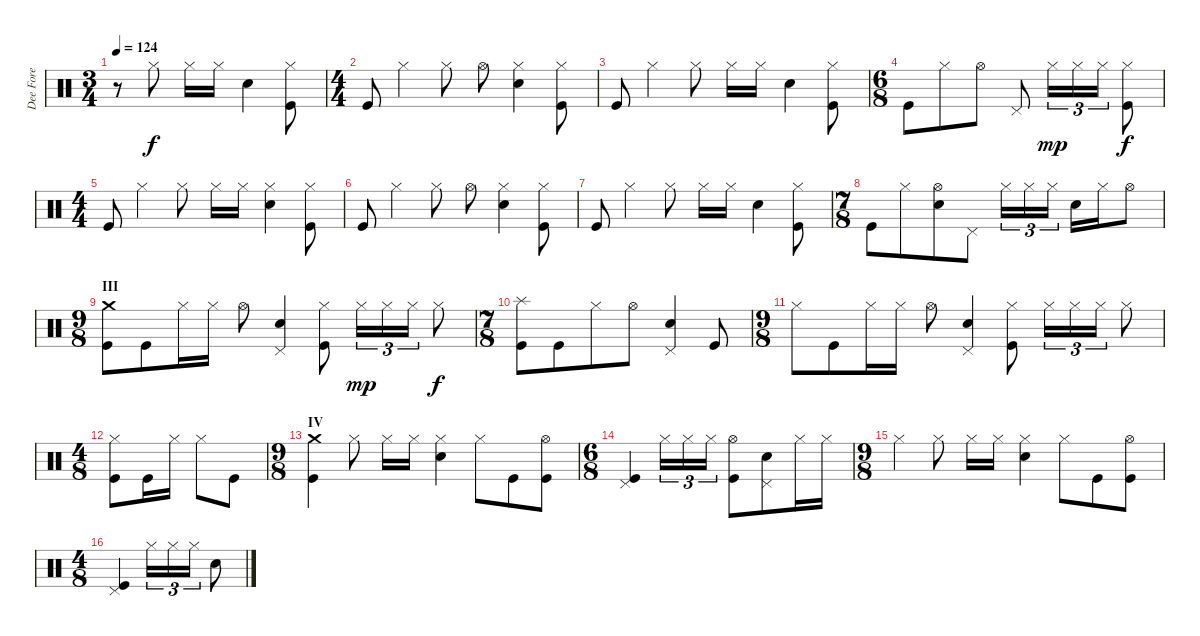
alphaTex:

\track ("Dee Fore" "Dee Fore") {instrument percussion}
\staff {score}
\articulation defaults
\ts (3 4)
\tempo 124
\clef neutral
\ks c
r.8{dy f} "Hi-Hat (closed)".8 "Hi-Hat (closed)".16 "Hi-Hat (closed)".16 "Electric Snare (hit)".4 ("Hi-Hat (closed)" "Kick (hit)").8 |
\ts (4 4)
"Kick (hit)".8 "Hi-Hat (closed)".4 "Hi-Hat (closed)".8 "Hi-Hat (open)".8 ("Hi-Hat (closed)" "Electric Snare (hit)").4 ("Hi-Hat (closed)" "Kick (hit)").8 |
"Kick (hit)".8 "Hi-Hat (closed)".4 "Hi-Hat (closed)".8 "Hi-Hat (closed)".16 "Hi-Hat (closed)".16 "Electric Snare (hit)".4 ("Hi-Hat (closed)" "Kick (hit)").8 |
\ts (6 8)
"Kick (hit)".8 "Hi-Hat (closed)".8 "Hi-Hat (open)".8 "Pedal Hi-Hat (hit)".8 "Hi-Hat (closed)".16{tu (3 2) dy mp} "Hi-Hat (closed)".16{tu (3 2)} "Hi-Hat (closed)".16{tu (3 2)} ("Hi-Hat (closed)" "Kick (hit)").8{dy f} |
\ts (4 4)
"Kick (hit)".8 "Hi-Hat (closed)".4 "Hi-Hat (closed)".8 "Hi-Hat (closed)".16 "Hi-Hat (closed)".16 ("Hi-Hat (closed)" "Electric Snare (hit)").4 ("Hi-Hat (closed)" "Kick (hit)").8 |
"Kick (hit)".8 "Hi-Hat (closed)".4 "Hi-Hat (closed)".8 "Hi-Hat (open)".8 ("Hi-Hat (closed)" "Electric Snare (hit)").4 ("Hi-Hat (closed)" "Kick (hit)").8 |
"Kick (hit)".8 "Hi-Hat (closed)".4 "Hi-Hat (closed)".8 "Hi-Hat (closed)".16 "Hi-Hat (closed)".16 "Electric Snare (hit)".4 ("Hi-Hat (closed)" "Kick (hit)").8 |
\ts (7 8)
"Kick (hit)".8 "Hi-Hat (closed)".8 ("Hi-Hat (open)" "Electric Snare (hit)").8 "Pedal Hi-Hat (hit)".8 "Hi-Hat (closed)".16{tu (3 2)} "Hi-Hat (closed)".16{tu (3 2)} "Hi-Hat (closed)".16{tu (3 2)} "Electric Snare (hit)".16 "Hi-Hat (closed)".16 "Hi-Hat (open)".8 |
\ts (9 8)
\section ("" "III")
("Crash medium (hit)" "Kick (hit)").8 "Kick (hit)".8 "Hi-Hat (closed)".16 "Hi-Hat (closed)".16 "Hi-Hat (open)".8 ("Electric Snare (hit)" "Pedal Hi-Hat (hit)").4 ("Hi-Hat (closed)" "Kick (hit)").8 "Hi-Hat (closed)".16{tu (3 2) dy mp} "Hi-Hat (closed)".16{tu (3 2)} "Hi-Hat (closed)".16{tu (3 2)} "Hi-Hat (closed)".8{dy f} |
\ts (7 8)
("Splash (hit)" "Kick (hit)").8 "Kick (hit)".8 "Hi-Hat (closed)".8 "Hi-Hat (open)".8 ("Electric Snare (hit)" "Pedal Hi-Hat (hit)").4 "Kick (hit)".8 |
\ts (9 8)
"Hi-Hat (closed)".8 "Kick (hit)".8 "Hi-Hat (closed)".16 "Hi-Hat (closed)".16 "Hi-Hat (open)".8 ("Electric Snare (hit)" "Pedal Hi-Hat (hit)").4 ("Hi-Hat (closed)" "Kick (hit)").8 "Hi-Hat (closed)".16{tu (3 2)} "Hi-Hat (closed)".16{tu (3 2)} "Hi-Hat (closed)".16{tu (3 2)} "Hi-Hat (closed)".8 |
\ts (4 8)
("Hi-Hat (closed)" "Kick (hit)").8 "Kick (hit)".16 "Hi-Hat (closed)".16 "Hi-Hat (closed)".8 "Kick (hit)".8 |
\ts (9 8)
\section ("" "IV")
("Crash medium (hit)" "Kick (hit)").4 "Hi-Hat (closed)".8 "Hi-Hat (closed)".16 "Hi-Hat (closed)".16 ("Hi-Hat (closed)" "Electric Snare (hit)").4 "Hi-Hat (closed)".8 "Kick (hit)".8 ("Hi-Hat (open)" "Kick (hit)").8 |
\ts (6 8)
("Pedal Hi-Hat (hit)" "Kick (hit)").4 "Hi-Hat (closed)".16{tu (3 2)} "Hi-Hat (closed)".16{tu (3 2)} "Hi-Hat (closed)".16{tu (3 2)} ("Hi-Hat (open)" "Kick (hit)").8 ("Electric Snare (hit)" "Pedal Hi-Hat (hit)").8 "Hi-Hat (closed)".16 "Hi-Hat (closed)".16 |
\ts (9 8)
"Hi-Hat (closed)".4 "Hi-Hat (closed)".8 "Hi-Hat (closed)".16 "Hi-Hat (closed)".16 ("Hi-Hat (closed)" "Electric Snare (hit)").4 "Hi-Hat (closed)".8 "Kick (hit)".8 ("Hi-Hat (open)" "Kick (hit)").8 |
\ts (4 8)
("Pedal Hi-Hat (hit)" "Kick (hit)").4 "Hi-Hat (closed)".16{tu (3 2)} "Hi-Hat (closed)".16{tu (3 2)} "Hi-Hat (closed)".16{tu (3 2)} "Electric Snare (hit)".8
